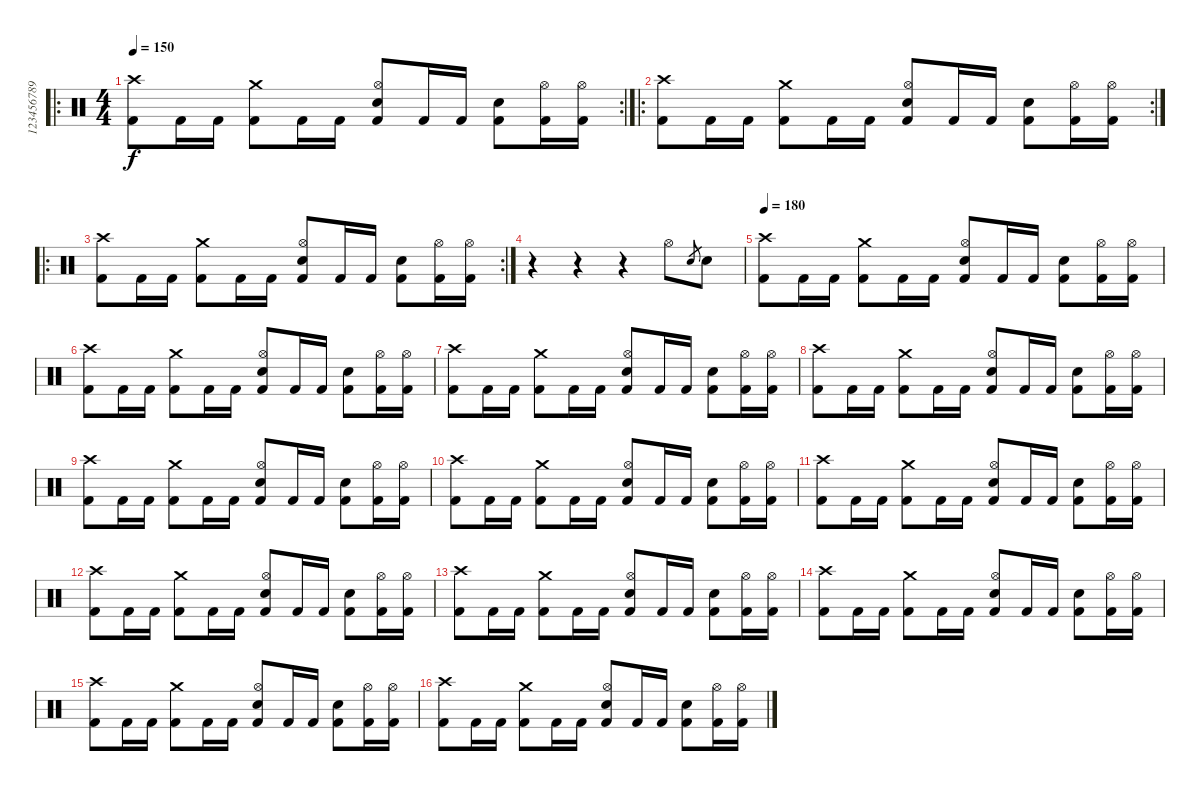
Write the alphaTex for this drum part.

\track ("123456789" "123456789") {instrument percussion}
\staff {score}
\articulation defaults
\ro
\rc 2
\ts (4 4)
\tempo 150
\clef neutral
\ks c
("Kick (hit) 2" "Crash high (hit)").8{dy f} "Kick (hit) 2".16 "Kick (hit) 2".16 ("Kick (hit) 2" "Crash medium (hit)").8 "Kick (hit) 2".16 "Kick (hit) 2".16 ("Kick (hit) 2" "Hi-Hat (open)" "Electric Snare (hit)").8 "Kick (hit) 2".16 "Kick (hit) 2".16 ("Kick (hit) 2" "Snare (hit) 2").8 ("Kick (hit) 2" "Hi-Hat (open)").16 ("Kick (hit) 2" "Hi-Hat (open)").16 |
\ro
\rc 2
("Kick (hit) 2" "Crash high (hit)").8 "Kick (hit) 2".16 "Kick (hit) 2".16 ("Kick (hit) 2" "Crash medium (hit)").8 "Kick (hit) 2".16 "Kick (hit) 2".16 ("Kick (hit) 2" "Hi-Hat (open)" "Electric Snare (hit)").8 "Kick (hit) 2".16 "Kick (hit) 2".16 ("Kick (hit) 2" "Snare (hit) 2").8 ("Kick (hit) 2" "Hi-Hat (open)").16 ("Kick (hit) 2" "Hi-Hat (open)").16 |
\ro
\rc 2
("Kick (hit) 2" "Crash high (hit)").8 "Kick (hit) 2".16 "Kick (hit) 2".16 ("Kick (hit) 2" "Crash medium (hit)").8 "Kick (hit) 2".16 "Kick (hit) 2".16 ("Kick (hit) 2" "Hi-Hat (open)" "Electric Snare (hit)").8 "Kick (hit) 2".16 "Kick (hit) 2".16 ("Kick (hit) 2" "Snare (hit) 2").8 ("Kick (hit) 2" "Hi-Hat (open)").16 ("Kick (hit) 2" "Hi-Hat (open)").16 |
r.4 r.4 r.4 "Hi-Hat (open)".8 "Electric Snare (hit)".8{gr} "Electric Snare (hit)".8 |
\tempo 180
("Kick (hit) 2" "Crash high (hit)").8 "Kick (hit) 2".16 "Kick (hit) 2".16 ("Kick (hit) 2" "Crash medium (hit)").8 "Kick (hit) 2".16 "Kick (hit) 2".16 ("Kick (hit) 2" "Hi-Hat (open)" "Electric Snare (hit)").8 "Kick (hit) 2".16 "Kick (hit) 2".16 ("Kick (hit) 2" "Snare (hit) 2").8 ("Kick (hit) 2" "Hi-Hat (open)").16 ("Kick (hit) 2" "Hi-Hat (open)").16 |
("Kick (hit) 2" "Crash high (hit)").8 "Kick (hit) 2".16 "Kick (hit) 2".16 ("Kick (hit) 2" "Crash medium (hit)").8 "Kick (hit) 2".16 "Kick (hit) 2".16 ("Kick (hit) 2" "Hi-Hat (open)" "Electric Snare (hit)").8 "Kick (hit) 2".16 "Kick (hit) 2".16 ("Kick (hit) 2" "Snare (hit) 2").8 ("Kick (hit) 2" "Hi-Hat (open)").16 ("Kick (hit) 2" "Hi-Hat (open)").16 |
("Kick (hit) 2" "Crash high (hit)").8 "Kick (hit) 2".16 "Kick (hit) 2".16 ("Kick (hit) 2" "Crash medium (hit)").8 "Kick (hit) 2".16 "Kick (hit) 2".16 ("Kick (hit) 2" "Hi-Hat (open)" "Electric Snare (hit)").8 "Kick (hit) 2".16 "Kick (hit) 2".16 ("Kick (hit) 2" "Snare (hit) 2").8 ("Kick (hit) 2" "Hi-Hat (open)").16 ("Kick (hit) 2" "Hi-Hat (open)").16 |
("Kick (hit) 2" "Crash high (hit)").8 "Kick (hit) 2".16 "Kick (hit) 2".16 ("Kick (hit) 2" "Crash medium (hit)").8 "Kick (hit) 2".16 "Kick (hit) 2".16 ("Kick (hit) 2" "Hi-Hat (open)" "Electric Snare (hit)").8 "Kick (hit) 2".16 "Kick (hit) 2".16 ("Kick (hit) 2" "Snare (hit) 2").8 ("Kick (hit) 2" "Hi-Hat (open)").16 ("Kick (hit) 2" "Hi-Hat (open)").16 |
("Kick (hit) 2" "Crash high (hit)").8 "Kick (hit) 2".16 "Kick (hit) 2".16 ("Kick (hit) 2" "Crash medium (hit)").8 "Kick (hit) 2".16 "Kick (hit) 2".16 ("Kick (hit) 2" "Hi-Hat (open)" "Electric Snare (hit)").8 "Kick (hit) 2".16 "Kick (hit) 2".16 ("Kick (hit) 2" "Snare (hit) 2").8 ("Kick (hit) 2" "Hi-Hat (open)").16 ("Kick (hit) 2" "Hi-Hat (open)").16 |
("Kick (hit) 2" "Crash high (hit)").8 "Kick (hit) 2".16 "Kick (hit) 2".16 ("Kick (hit) 2" "Crash medium (hit)").8 "Kick (hit) 2".16 "Kick (hit) 2".16 ("Kick (hit) 2" "Hi-Hat (open)" "Electric Snare (hit)").8 "Kick (hit) 2".16 "Kick (hit) 2".16 ("Kick (hit) 2" "Snare (hit) 2").8 ("Kick (hit) 2" "Hi-Hat (open)").16 ("Kick (hit) 2" "Hi-Hat (open)").16 |
("Kick (hit) 2" "Crash high (hit)").8 "Kick (hit) 2".16 "Kick (hit) 2".16 ("Kick (hit) 2" "Crash medium (hit)").8 "Kick (hit) 2".16 "Kick (hit) 2".16 ("Kick (hit) 2" "Hi-Hat (open)" "Electric Snare (hit)").8 "Kick (hit) 2".16 "Kick (hit) 2".16 ("Kick (hit) 2" "Snare (hit) 2").8 ("Kick (hit) 2" "Hi-Hat (open)").16 ("Kick (hit) 2" "Hi-Hat (open)").16 |
("Kick (hit) 2" "Crash high (hit)").8 "Kick (hit) 2".16 "Kick (hit) 2".16 ("Kick (hit) 2" "Crash medium (hit)").8 "Kick (hit) 2".16 "Kick (hit) 2".16 ("Kick (hit) 2" "Hi-Hat (open)" "Electric Snare (hit)").8 "Kick (hit) 2".16 "Kick (hit) 2".16 ("Kick (hit) 2" "Snare (hit) 2").8 ("Kick (hit) 2" "Hi-Hat (open)").16 ("Kick (hit) 2" "Hi-Hat (open)").16 |
("Kick (hit) 2" "Crash high (hit)").8 "Kick (hit) 2".16 "Kick (hit) 2".16 ("Kick (hit) 2" "Crash medium (hit)").8 "Kick (hit) 2".16 "Kick (hit) 2".16 ("Kick (hit) 2" "Hi-Hat (open)" "Electric Snare (hit)").8 "Kick (hit) 2".16 "Kick (hit) 2".16 ("Kick (hit) 2" "Snare (hit) 2").8 ("Kick (hit) 2" "Hi-Hat (open)").16 ("Kick (hit) 2" "Hi-Hat (open)").16 |
("Kick (hit) 2" "Crash high (hit)").8 "Kick (hit) 2".16 "Kick (hit) 2".16 ("Kick (hit) 2" "Crash medium (hit)").8 "Kick (hit) 2".16 "Kick (hit) 2".16 ("Kick (hit) 2" "Hi-Hat (open)" "Electric Snare (hit)").8 "Kick (hit) 2".16 "Kick (hit) 2".16 ("Kick (hit) 2" "Snare (hit) 2").8 ("Kick (hit) 2" "Hi-Hat (open)").16 ("Kick (hit) 2" "Hi-Hat (open)").16 |
("Kick (hit) 2" "Crash high (hit)").8 "Kick (hit) 2".16 "Kick (hit) 2".16 ("Kick (hit) 2" "Crash medium (hit)").8 "Kick (hit) 2".16 "Kick (hit) 2".16 ("Kick (hit) 2" "Hi-Hat (open)" "Electric Snare (hit)").8 "Kick (hit) 2".16 "Kick (hit) 2".16 ("Kick (hit) 2" "Snare (hit) 2").8 ("Kick (hit) 2" "Hi-Hat (open)").16 ("Kick (hit) 2" "Hi-Hat (open)").16 |
("Kick (hit) 2" "Crash high (hit)").8 "Kick (hit) 2".16 "Kick (hit) 2".16 ("Kick (hit) 2" "Crash medium (hit)").8 "Kick (hit) 2".16 "Kick (hit) 2".16 ("Kick (hit) 2" "Hi-Hat (open)" "Electric Snare (hit)").8 "Kick (hit) 2".16 "Kick (hit) 2".16 ("Kick (hit) 2" "Snare (hit) 2").8 ("Kick (hit) 2" "Hi-Hat (open)").16 ("Kick (hit) 2" "Hi-Hat (open)").16
